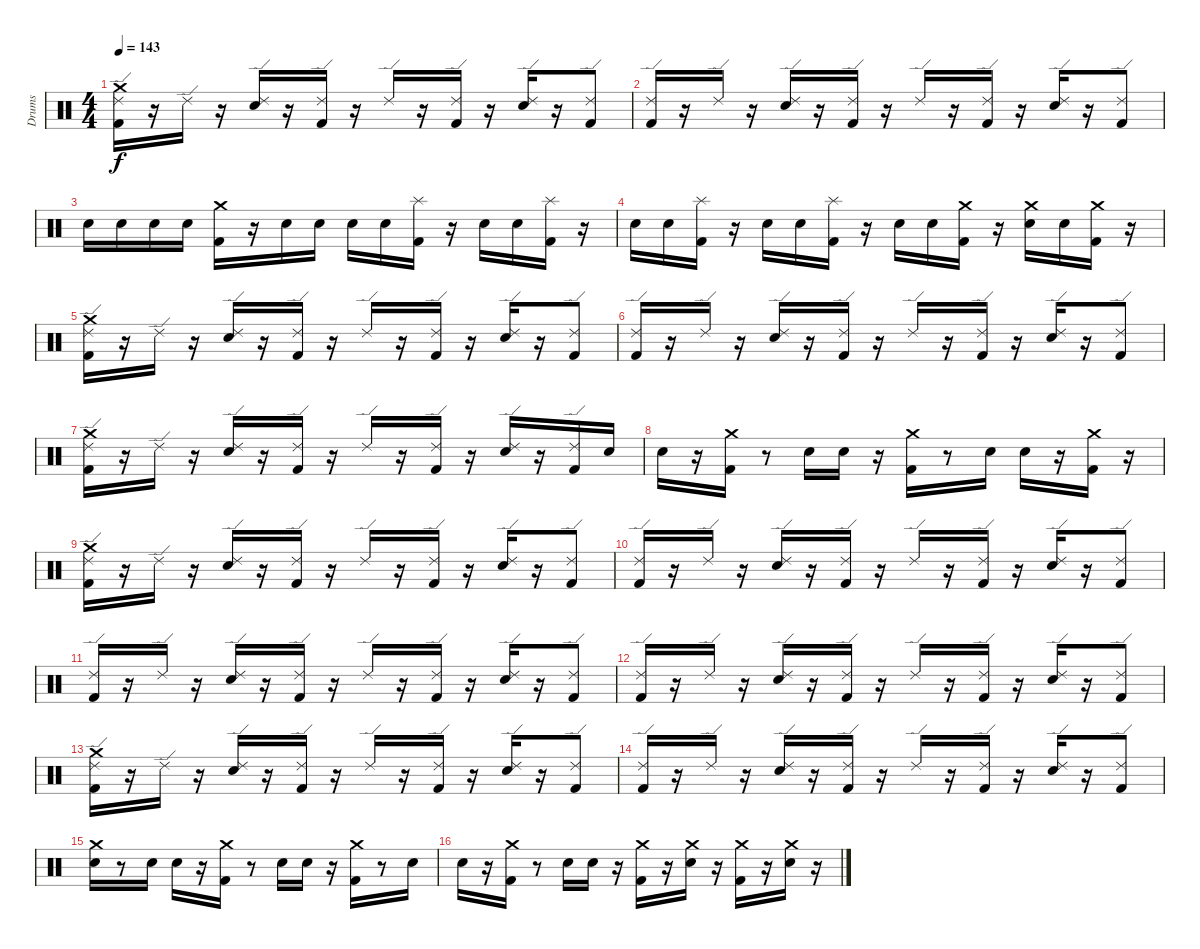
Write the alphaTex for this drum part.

\track ("Drums" "Drums") {instrument percussion}
\staff {score}
\articulation defaults
\ts (4 4)
\tempo 143
\clef neutral
\ks c
("Crash medium (hit)" "Kick (hit) 2" "Ride (edge) 2").16{dy f} r.16 "Ride (edge) 2".16 r.16 ("Electric Snare (hit)" "Ride (edge) 2").16 r.16 ("Ride (edge) 2" "Kick (hit) 2").16 r.16 "Ride (edge) 2".16 r.16 ("Kick (hit) 2" "Ride (edge) 2").16 r.16 ("Electric Snare (hit)" "Ride (edge) 2").16 r.16 ("Kick (hit) 2" "Ride (edge) 2").8 |
("Kick (hit) 2" "Ride (edge) 2").16 r.16 "Ride (edge) 2".16 r.16 ("Electric Snare (hit)" "Ride (edge) 2").16 r.16 ("Ride (edge) 2" "Kick (hit) 2").16 r.16 "Ride (edge) 2".16 r.16 ("Kick (hit) 2" "Ride (edge) 2").16 r.16 ("Electric Snare (hit)" "Ride (edge) 2").16 r.16 ("Kick (hit) 2" "Ride (edge) 2").8 |
"Electric Snare (hit)".16 "Electric Snare (hit)".16 "Electric Snare (hit)".16 "Electric Snare (hit)".16 ("Kick (hit) 2" "Crash medium (hit)").16 r.16 "Electric Snare (hit)".16 "Electric Snare (hit)".16 "Electric Snare (hit)".16 "Electric Snare (hit)".16 ("Kick (hit) 2" "Splash (hit)").16 r.16 "Electric Snare (hit)".16 "Electric Snare (hit)".16 ("Kick (hit) 2" "Splash (hit)").16 r.16 |
"Electric Snare (hit)".16 "Electric Snare (hit)".16 ("Kick (hit) 2" "Splash (hit)").16 r.16 "Electric Snare (hit)".16 "Electric Snare (hit)".16 ("Splash (hit)" "Kick (hit) 2").16 r.16 "Electric Snare (hit)".16 "Electric Snare (hit)".16 ("Crash medium (hit)" "Kick (hit) 2").16 r.16 ("Crash medium (hit)" "Electric Snare (hit)").16 "Electric Snare (hit)".16 ("Crash medium (hit)" "Kick (hit) 2").16 r.16 |
("Crash medium (hit)" "Kick (hit) 2" "Ride (edge) 2").16 r.16 "Ride (edge) 2".16 r.16 ("Electric Snare (hit)" "Ride (edge) 2").16 r.16 ("Ride (edge) 2" "Kick (hit) 2").16 r.16 "Ride (edge) 2".16 r.16 ("Kick (hit) 2" "Ride (edge) 2").16 r.16 ("Electric Snare (hit)" "Ride (edge) 2").16 r.16 ("Kick (hit) 2" "Ride (edge) 2").8 |
("Kick (hit) 2" "Ride (edge) 2").16 r.16 "Ride (edge) 2".16 r.16 ("Electric Snare (hit)" "Ride (edge) 2").16 r.16 ("Ride (edge) 2" "Kick (hit) 2").16 r.16 "Ride (edge) 2".16 r.16 ("Kick (hit) 2" "Ride (edge) 2").16 r.16 ("Electric Snare (hit)" "Ride (edge) 2").16 r.16 ("Kick (hit) 2" "Ride (edge) 2").8 |
("Crash medium (hit)" "Kick (hit) 2" "Ride (edge) 2").16 r.16 "Ride (edge) 2".16 r.16 ("Electric Snare (hit)" "Ride (edge) 2").16 r.16 ("Ride (edge) 2" "Kick (hit) 2").16 r.16 "Ride (edge) 2".16 r.16 ("Kick (hit) 2" "Ride (edge) 2").16 r.16 ("Electric Snare (hit)" "Ride (edge) 2").16 r.16 ("Kick (hit) 2" "Ride (edge) 2").16 "Electric Snare (hit)".16 |
"Electric Snare (hit)".16 r.16 ("Kick (hit) 2" "Crash medium (hit)").16 r.8 "Electric Snare (hit)".16 "Electric Snare (hit)".16 r.16 ("Kick (hit) 2" "Crash medium (hit)").16 r.8 "Electric Snare (hit)".16 "Electric Snare (hit)".16 r.16 ("Kick (hit) 2" "Crash medium (hit)").16 r.16 |
("Crash medium (hit)" "Kick (hit) 2" "Ride (edge) 2").16 r.16 "Ride (edge) 2".16 r.16 ("Electric Snare (hit)" "Ride (edge) 2").16 r.16 ("Ride (edge) 2" "Kick (hit) 2").16 r.16 "Ride (edge) 2".16 r.16 ("Kick (hit) 2" "Ride (edge) 2").16 r.16 ("Electric Snare (hit)" "Ride (edge) 2").16 r.16 ("Kick (hit) 2" "Ride (edge) 2").8 |
("Kick (hit) 2" "Ride (edge) 2").16 r.16 "Ride (edge) 2".16 r.16 ("Electric Snare (hit)" "Ride (edge) 2").16 r.16 ("Ride (edge) 2" "Kick (hit) 2").16 r.16 "Ride (edge) 2".16 r.16 ("Kick (hit) 2" "Ride (edge) 2").16 r.16 ("Electric Snare (hit)" "Ride (edge) 2").16 r.16 ("Kick (hit) 2" "Ride (edge) 2").8 |
("Kick (hit) 2" "Ride (edge) 2").16 r.16 "Ride (edge) 2".16 r.16 ("Electric Snare (hit)" "Ride (edge) 2").16 r.16 ("Ride (edge) 2" "Kick (hit) 2").16 r.16 "Ride (edge) 2".16 r.16 ("Kick (hit) 2" "Ride (edge) 2").16 r.16 ("Electric Snare (hit)" "Ride (edge) 2").16 r.16 ("Kick (hit) 2" "Ride (edge) 2").8 |
("Kick (hit) 2" "Ride (edge) 2").16 r.16 "Ride (edge) 2".16 r.16 ("Electric Snare (hit)" "Ride (edge) 2").16 r.16 ("Ride (edge) 2" "Kick (hit) 2").16 r.16 "Ride (edge) 2".16 r.16 ("Kick (hit) 2" "Ride (edge) 2").16 r.16 ("Electric Snare (hit)" "Ride (edge) 2").16 r.16 ("Kick (hit) 2" "Ride (edge) 2").8 |
("Crash medium (hit)" "Kick (hit) 2" "Ride (edge) 2").16 r.16 "Ride (edge) 2".16 r.16 ("Electric Snare (hit)" "Ride (edge) 2").16 r.16 ("Ride (edge) 2" "Kick (hit) 2").16 r.16 "Ride (edge) 2".16 r.16 ("Kick (hit) 2" "Ride (edge) 2").16 r.16 ("Electric Snare (hit)" "Ride (edge) 2").16 r.16 ("Kick (hit) 2" "Ride (edge) 2").8 |
("Kick (hit) 2" "Ride (edge) 2").16 r.16 "Ride (edge) 2".16 r.16 ("Electric Snare (hit)" "Ride (edge) 2").16 r.16 ("Ride (edge) 2" "Kick (hit) 2").16 r.16 "Ride (edge) 2".16 r.16 ("Kick (hit) 2" "Ride (edge) 2").16 r.16 ("Electric Snare (hit)" "Ride (edge) 2").16 r.16 ("Kick (hit) 2" "Ride (edge) 2").8 |
("Crash medium (hit)" "Electric Snare (hit)").16 r.8 "Electric Snare (hit)".16 "Electric Snare (hit)".16 r.16 ("Crash medium (hit)" "Kick (hit) 2").16 r.8 "Electric Snare (hit)".16 "Electric Snare (hit)".16 r.16 ("Crash medium (hit)" "Kick (hit) 2").16 r.8 "Electric Snare (hit)".16 |
"Electric Snare (hit)".16 r.16 ("Kick (hit) 2" "Crash medium (hit)").16 r.8 "Electric Snare (hit)".16 "Electric Snare (hit)".16 r.16 ("Kick (hit) 2" "Crash medium (hit)").16 r.16 ("Crash medium (hit)" "Electric Snare (hit)").16 r.16 ("Kick (hit) 2" "Crash medium (hit)").16 r.16 ("Electric Snare (hit)" "Crash medium (hit)").16 r.16
